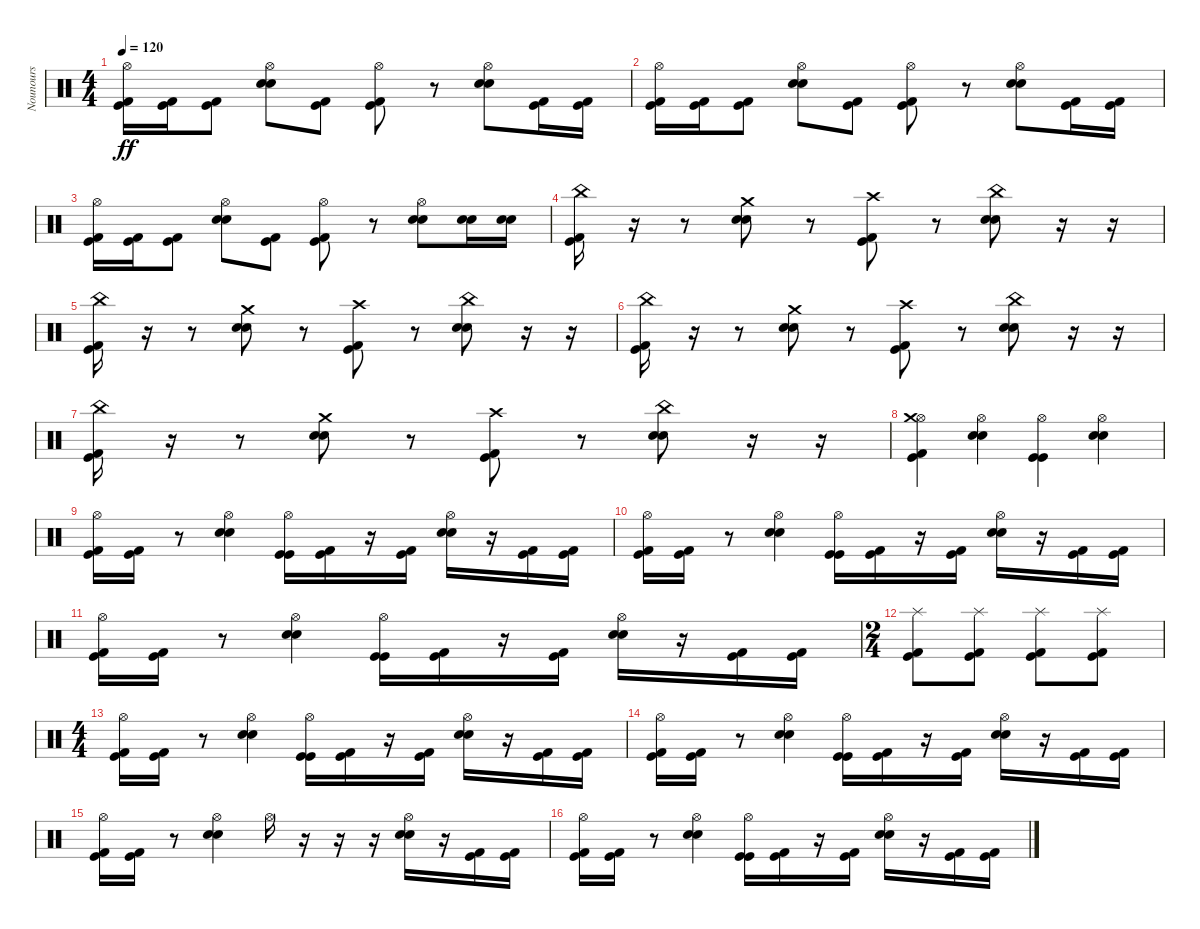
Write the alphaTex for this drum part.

\track ("Nounours" "Nounours") {instrument percussion}
\staff {score}
\articulation defaults
\ts (4 4)
\tempo 120
\clef neutral
\ks c
("Hi-Hat (open)" "Kick (hit)" "Kick (hit) 2").16{dy ff} ("Kick (hit) 2" "Kick (hit)").16 ("Kick (hit)" "Kick (hit) 2").8 ("Hi-Hat (open)" "Electric Snare (hit)" "Electric Snare (hit)").8 ("Kick (hit) 2" "Kick (hit)").8 ("Hi-Hat (open)" "Kick (hit)" "Kick (hit) 2").8 r.8 ("Hi-Hat (open)" "Electric Snare (hit)" "Electric Snare (hit)").8 ("Kick (hit) 2" "Kick (hit)").16 ("Kick (hit) 2" "Kick (hit)").16 |
("Hi-Hat (open)" "Kick (hit)" "Kick (hit) 2").16 ("Kick (hit) 2" "Kick (hit)").16 ("Kick (hit)" "Kick (hit) 2").8 ("Hi-Hat (open)" "Electric Snare (hit)" "Electric Snare (hit)").8 ("Kick (hit) 2" "Kick (hit)").8 ("Hi-Hat (open)" "Kick (hit)" "Kick (hit) 2").8 r.8 ("Hi-Hat (open)" "Electric Snare (hit)" "Electric Snare (hit)").8 ("Kick (hit) 2" "Kick (hit)").16 ("Kick (hit) 2" "Kick (hit)").16 |
("Hi-Hat (open)" "Kick (hit)" "Kick (hit) 2").16 ("Kick (hit) 2" "Kick (hit)").16 ("Kick (hit)" "Kick (hit) 2").8 ("Hi-Hat (open)" "Electric Snare (hit)" "Electric Snare (hit)").8 ("Kick (hit) 2" "Kick (hit)").8 ("Hi-Hat (open)" "Kick (hit)" "Kick (hit) 2").8 r.8 ("Hi-Hat (open)" "Electric Snare (hit)" "Electric Snare (hit)").8 ("Electric Snare (hit)" "Electric Snare (hit)").16 ("Electric Snare (hit)" "Electric Snare (hit)").16 |
("China (hit)" "Kick (hit)" "Kick (hit) 2").16 r.16 r.8 ("Crash medium (hit)" "Electric Snare (hit)" "Electric Snare (hit)").8 r.8 ("Crash high (hit)" "Kick (hit)" "Kick (hit) 2").8 r.8 ("China (hit)" "Electric Snare (hit)" "Electric Snare (hit)").8 r.16 r.16 |
("China (hit)" "Kick (hit)" "Kick (hit) 2").16 r.16 r.8 ("Crash medium (hit)" "Electric Snare (hit)" "Electric Snare (hit)").8 r.8 ("Crash high (hit)" "Kick (hit)" "Kick (hit) 2").8 r.8 ("China (hit)" "Electric Snare (hit)" "Electric Snare (hit)").8 r.16 r.16 |
("China (hit)" "Kick (hit)" "Kick (hit) 2").16 r.16 r.8 ("Crash medium (hit)" "Electric Snare (hit)" "Electric Snare (hit)").8 r.8 ("Crash high (hit)" "Kick (hit)" "Kick (hit) 2").8 r.8 ("China (hit)" "Electric Snare (hit)" "Electric Snare (hit)").8 r.16 r.16 |
("China (hit)" "Kick (hit)" "Kick (hit) 2").16 r.16 r.8 ("Crash medium (hit)" "Electric Snare (hit)" "Electric Snare (hit)").8 r.8 ("Crash high (hit)" "Kick (hit)" "Kick (hit) 2").8 r.8 ("China (hit)" "Electric Snare (hit)" "Electric Snare (hit)").8 r.16 r.16 |
("Hi-Hat (open)" "Crash medium (hit)" "Kick (hit)" "Kick (hit) 2").4 ("Hi-Hat (open)" "Electric Snare (hit)" "Electric Snare (hit)").4 ("Hi-Hat (open)" "Kick (hit)" "Kick (hit)").4 ("Hi-Hat (open)" "Electric Snare (hit)" "Electric Snare (hit)").4 |
("Hi-Hat (open)" "Kick (hit)" "Kick (hit) 2").16 ("Kick (hit)" "Kick (hit) 2").16 r.8 ("Hi-Hat (open)" "Electric Snare (hit)" "Electric Snare (hit)").4 ("Hi-Hat (open)" "Kick (hit)" "Kick (hit)").16 ("Kick (hit)" "Kick (hit) 2").16 r.16 ("Kick (hit)" "Kick (hit) 2").16 ("Hi-Hat (open)" "Electric Snare (hit)" "Electric Snare (hit)").16 r.16 ("Kick (hit)" "Kick (hit) 2").16 ("Kick (hit) 2" "Kick (hit)").16 |
("Hi-Hat (open)" "Kick (hit)" "Kick (hit) 2").16 ("Kick (hit)" "Kick (hit) 2").16 r.8 ("Hi-Hat (open)" "Electric Snare (hit)" "Electric Snare (hit)").4 ("Hi-Hat (open)" "Kick (hit)" "Kick (hit)").16 ("Kick (hit)" "Kick (hit) 2").16 r.16 ("Kick (hit)" "Kick (hit) 2").16 ("Hi-Hat (open)" "Electric Snare (hit)" "Electric Snare (hit)").16 r.16 ("Kick (hit)" "Kick (hit) 2").16 ("Kick (hit) 2" "Kick (hit)").16 |
("Hi-Hat (open)" "Kick (hit)" "Kick (hit) 2").16 ("Kick (hit)" "Kick (hit) 2").16 r.8 ("Hi-Hat (open)" "Electric Snare (hit)" "Electric Snare (hit)").4 ("Hi-Hat (open)" "Kick (hit)" "Kick (hit)").16 ("Kick (hit)" "Kick (hit) 2").16 r.16 ("Kick (hit)" "Kick (hit) 2").16 ("Hi-Hat (open)" "Electric Snare (hit)" "Electric Snare (hit)").16 r.16 ("Kick (hit)" "Kick (hit) 2").16 ("Kick (hit) 2" "Kick (hit)").16 |
\ts (2 4)
("Splash (hit)" "Kick (hit) 2" "Kick (hit)").8 ("Splash (hit)" "Kick (hit)" "Kick (hit) 2").8 ("Splash (hit)" "Kick (hit) 2" "Kick (hit)").8 ("Splash (hit)" "Kick (hit)" "Kick (hit) 2").8 |
\ts (4 4)
("Hi-Hat (open)" "Kick (hit)" "Kick (hit) 2").16 ("Kick (hit)" "Kick (hit) 2").16 r.8 ("Hi-Hat (open)" "Electric Snare (hit)" "Electric Snare (hit)").4 ("Hi-Hat (open)" "Kick (hit)" "Kick (hit)").16 ("Kick (hit)" "Kick (hit) 2").16 r.16 ("Kick (hit)" "Kick (hit) 2").16 ("Hi-Hat (open)" "Electric Snare (hit)" "Electric Snare (hit)").16 r.16 ("Kick (hit)" "Kick (hit) 2").16 ("Kick (hit) 2" "Kick (hit)").16 |
("Hi-Hat (open)" "Kick (hit)" "Kick (hit) 2").16 ("Kick (hit)" "Kick (hit) 2").16 r.8 ("Hi-Hat (open)" "Electric Snare (hit)" "Electric Snare (hit)").4 ("Hi-Hat (open)" "Kick (hit)" "Kick (hit)").16 ("Kick (hit)" "Kick (hit) 2").16 r.16 ("Kick (hit)" "Kick (hit) 2").16 ("Hi-Hat (open)" "Electric Snare (hit)" "Electric Snare (hit)").16 r.16 ("Kick (hit)" "Kick (hit) 2").16 ("Kick (hit) 2" "Kick (hit)").16 |
("Hi-Hat (open)" "Kick (hit)" "Kick (hit) 2").16 ("Kick (hit)" "Kick (hit) 2").16 r.8 ("Hi-Hat (open)" "Electric Snare (hit)" "Electric Snare (hit)").4 "Hi-Hat (open)".16 r.16 r.16 r.16 ("Hi-Hat (open)" "Electric Snare (hit)" "Electric Snare (hit)").16 r.16 ("Kick (hit)" "Kick (hit) 2").16 ("Kick (hit) 2" "Kick (hit)").16 |
("Hi-Hat (open)" "Kick (hit)" "Kick (hit) 2").16 ("Kick (hit)" "Kick (hit) 2").16 r.8 ("Hi-Hat (open)" "Electric Snare (hit)" "Electric Snare (hit)").4 ("Hi-Hat (open)" "Kick (hit)" "Kick (hit)").16 ("Kick (hit)" "Kick (hit) 2").16 r.16 ("Kick (hit)" "Kick (hit) 2").16 ("Hi-Hat (open)" "Electric Snare (hit)" "Electric Snare (hit)").16 r.16 ("Kick (hit)" "Kick (hit) 2").16 ("Kick (hit) 2" "Kick (hit)").16
